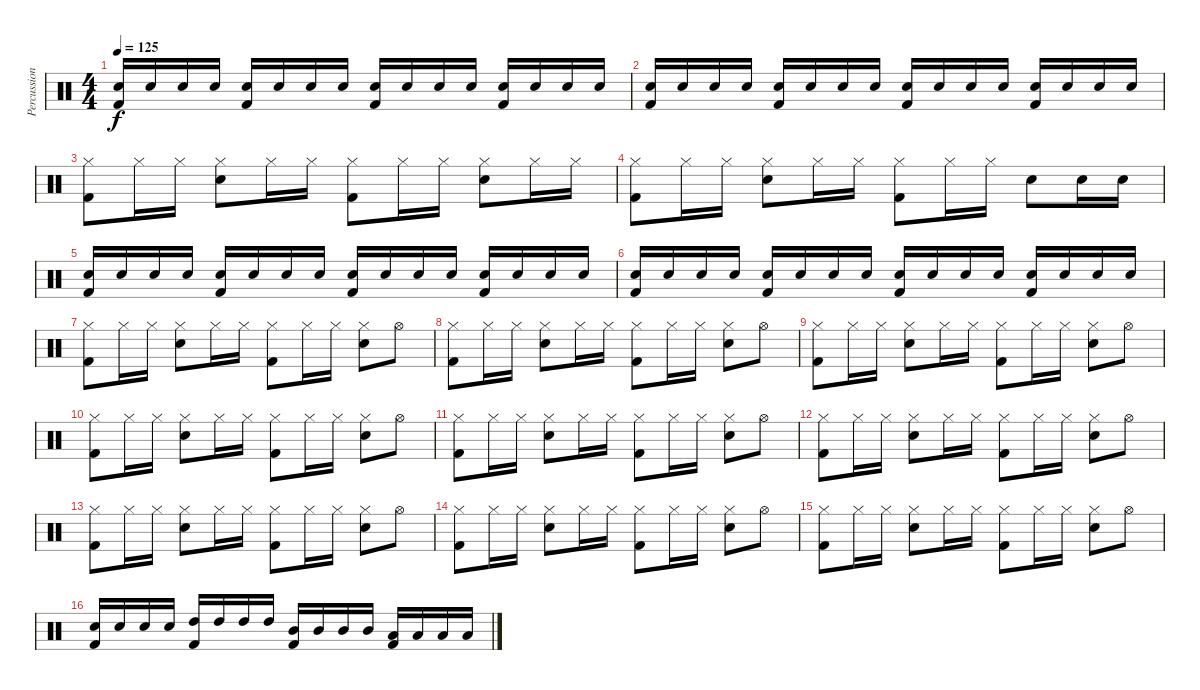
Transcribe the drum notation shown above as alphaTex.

\track ("Percussion" "Percussion") {instrument percussion}
\staff {score}
\articulation defaults
\ts (4 4)
\tempo 125
\clef neutral
\ks c
("Snare (hit) 2" "Kick (hit) 2").16{dy f} "Snare (hit) 2".16 "Snare (hit) 2".16 "Snare (hit) 2".16 ("Snare (hit) 2" "Kick (hit) 2").16 "Snare (hit) 2".16 "Snare (hit) 2".16 "Snare (hit) 2".16 ("Snare (hit) 2" "Kick (hit) 2").16 "Snare (hit) 2".16 "Snare (hit) 2".16 "Snare (hit) 2".16 ("Snare (hit) 2" "Kick (hit) 2").16 "Snare (hit) 2".16 "Snare (hit) 2".16 "Snare (hit) 2".16 |
("Snare (hit) 2" "Kick (hit) 2").16 "Snare (hit) 2".16 "Snare (hit) 2".16 "Snare (hit) 2".16 ("Snare (hit) 2" "Kick (hit) 2").16 "Snare (hit) 2".16 "Snare (hit) 2".16 "Snare (hit) 2".16 ("Snare (hit) 2" "Kick (hit) 2").16 "Snare (hit) 2".16 "Snare (hit) 2".16 "Snare (hit) 2".16 ("Snare (hit) 2" "Kick (hit) 2").16 "Snare (hit) 2".16 "Snare (hit) 2".16 "Snare (hit) 2".16 |
("Hi-Hat (closed)" "Kick (hit) 2").8 "Hi-Hat (closed)".16 "Hi-Hat (closed)".16 ("Hi-Hat (closed)" "Snare (hit) 2").8 "Hi-Hat (closed)".16 "Hi-Hat (closed)".16 ("Hi-Hat (closed)" "Kick (hit) 2").8 "Hi-Hat (closed)".16 "Hi-Hat (closed)".16 ("Hi-Hat (closed)" "Snare (hit) 2").8 "Hi-Hat (closed)".16 "Hi-Hat (closed)".16 |
("Hi-Hat (closed)" "Kick (hit) 2").8 "Hi-Hat (closed)".16 "Hi-Hat (closed)".16 ("Hi-Hat (closed)" "Snare (hit) 2").8 "Hi-Hat (closed)".16 "Hi-Hat (closed)".16 ("Hi-Hat (closed)" "Kick (hit) 2").8 "Hi-Hat (closed)".16 "Hi-Hat (closed)".16 "Snare (hit) 2".8 "Snare (hit) 2".16 "Snare (hit) 2".16 |
("Snare (hit) 2" "Kick (hit) 2").16 "Snare (hit) 2".16 "Snare (hit) 2".16 "Snare (hit) 2".16 ("Snare (hit) 2" "Kick (hit) 2").16 "Snare (hit) 2".16 "Snare (hit) 2".16 "Snare (hit) 2".16 ("Snare (hit) 2" "Kick (hit) 2").16 "Snare (hit) 2".16 "Snare (hit) 2".16 "Snare (hit) 2".16 ("Snare (hit) 2" "Kick (hit) 2").16 "Snare (hit) 2".16 "Snare (hit) 2".16 "Snare (hit) 2".16 |
("Snare (hit) 2" "Kick (hit) 2").16 "Snare (hit) 2".16 "Snare (hit) 2".16 "Snare (hit) 2".16 ("Snare (hit) 2" "Kick (hit) 2").16 "Snare (hit) 2".16 "Snare (hit) 2".16 "Snare (hit) 2".16 ("Snare (hit) 2" "Kick (hit) 2").16 "Snare (hit) 2".16 "Snare (hit) 2".16 "Snare (hit) 2".16 ("Snare (hit) 2" "Kick (hit) 2").16 "Snare (hit) 2".16 "Snare (hit) 2".16 "Snare (hit) 2".16 |
("Hi-Hat (closed)" "Kick (hit) 2").8 "Hi-Hat (closed)".16 "Hi-Hat (closed)".16 ("Hi-Hat (closed)" "Snare (hit) 2").8 "Hi-Hat (closed)".16 "Hi-Hat (closed)".16 ("Hi-Hat (closed)" "Kick (hit) 2").8 "Hi-Hat (closed)".16 "Hi-Hat (closed)".16 ("Hi-Hat (closed)" "Snare (hit) 2").8 "Hi-Hat (open)".8 |
("Hi-Hat (closed)" "Kick (hit) 2").8 "Hi-Hat (closed)".16 "Hi-Hat (closed)".16 ("Hi-Hat (closed)" "Snare (hit) 2").8 "Hi-Hat (closed)".16 "Hi-Hat (closed)".16 ("Hi-Hat (closed)" "Kick (hit) 2").8 "Hi-Hat (closed)".16 "Hi-Hat (closed)".16 ("Hi-Hat (closed)" "Snare (hit) 2").8 "Hi-Hat (open)".8 |
("Hi-Hat (closed)" "Kick (hit) 2").8 "Hi-Hat (closed)".16 "Hi-Hat (closed)".16 ("Hi-Hat (closed)" "Snare (hit) 2").8 "Hi-Hat (closed)".16 "Hi-Hat (closed)".16 ("Hi-Hat (closed)" "Kick (hit) 2").8 "Hi-Hat (closed)".16 "Hi-Hat (closed)".16 ("Hi-Hat (closed)" "Snare (hit) 2").8 "Hi-Hat (open)".8 |
("Hi-Hat (closed)" "Kick (hit) 2").8 "Hi-Hat (closed)".16 "Hi-Hat (closed)".16 ("Hi-Hat (closed)" "Snare (hit) 2").8 "Hi-Hat (closed)".16 "Hi-Hat (closed)".16 ("Hi-Hat (closed)" "Kick (hit) 2").8 "Hi-Hat (closed)".16 "Hi-Hat (closed)".16 ("Hi-Hat (closed)" "Snare (hit) 2").8 "Hi-Hat (open)".8 |
("Hi-Hat (closed)" "Kick (hit) 2").8 "Hi-Hat (closed)".16 "Hi-Hat (closed)".16 ("Hi-Hat (closed)" "Snare (hit) 2").8 "Hi-Hat (closed)".16 "Hi-Hat (closed)".16 ("Hi-Hat (closed)" "Kick (hit) 2").8 "Hi-Hat (closed)".16 "Hi-Hat (closed)".16 ("Hi-Hat (closed)" "Snare (hit) 2").8 "Hi-Hat (open)".8 |
("Hi-Hat (closed)" "Kick (hit) 2").8 "Hi-Hat (closed)".16 "Hi-Hat (closed)".16 ("Hi-Hat (closed)" "Snare (hit) 2").8 "Hi-Hat (closed)".16 "Hi-Hat (closed)".16 ("Hi-Hat (closed)" "Kick (hit) 2").8 "Hi-Hat (closed)".16 "Hi-Hat (closed)".16 ("Hi-Hat (closed)" "Snare (hit) 2").8 "Hi-Hat (open)".8 |
("Hi-Hat (closed)" "Kick (hit) 2").8 "Hi-Hat (closed)".16 "Hi-Hat (closed)".16 ("Hi-Hat (closed)" "Snare (hit) 2").8 "Hi-Hat (closed)".16 "Hi-Hat (closed)".16 ("Hi-Hat (closed)" "Kick (hit) 2").8 "Hi-Hat (closed)".16 "Hi-Hat (closed)".16 ("Hi-Hat (closed)" "Snare (hit) 2").8 "Hi-Hat (open)".8 |
("Hi-Hat (closed)" "Kick (hit) 2").8 "Hi-Hat (closed)".16 "Hi-Hat (closed)".16 ("Hi-Hat (closed)" "Snare (hit) 2").8 "Hi-Hat (closed)".16 "Hi-Hat (closed)".16 ("Hi-Hat (closed)" "Kick (hit) 2").8 "Hi-Hat (closed)".16 "Hi-Hat (closed)".16 ("Hi-Hat (closed)" "Snare (hit) 2").8 "Hi-Hat (open)".8 |
("Hi-Hat (closed)" "Kick (hit) 2").8 "Hi-Hat (closed)".16 "Hi-Hat (closed)".16 ("Hi-Hat (closed)" "Snare (hit) 2").8 "Hi-Hat (closed)".16 "Hi-Hat (closed)".16 ("Hi-Hat (closed)" "Kick (hit) 2").8 "Hi-Hat (closed)".16 "Hi-Hat (closed)".16 ("Hi-Hat (closed)" "Snare (hit) 2").8 "Hi-Hat (open)".8 |
("Snare (hit) 2" "Kick (hit) 2").16 "Snare (hit) 2".16 "Snare (hit) 2".16 "Snare (hit) 2".16 ("High Tom (hit)" "Kick (hit) 2").16 "High Tom (hit)".16 "High Tom (hit)".16 "High Tom (hit)".16 ("Mid Tom (hit)" "Kick (hit) 2").16 "Mid Tom (hit)".16 "Mid Tom (hit)".16 "Mid Tom (hit)".16 ("Low Tom (hit)" "Kick (hit) 2").16 "Low Tom (hit)".16 "Low Tom (hit)".16 "Low Tom (hit)".16
